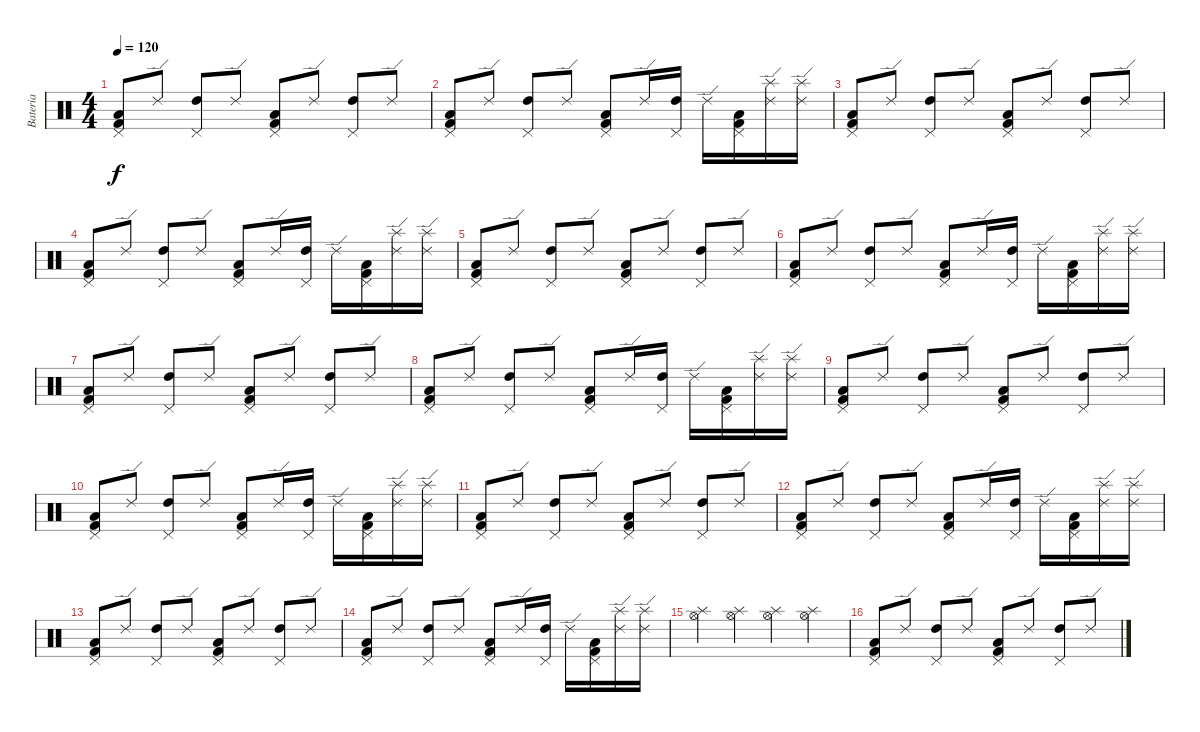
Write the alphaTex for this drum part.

\track ("Bateria" "Bateria") {instrument percussion}
\staff {score}
\articulation defaults
\ts (4 4)
\tempo 120
\clef neutral
\ks c
("Low Tom (hit)" "Kick (hit) 2" "Pedal Hi-Hat (hit)").8{dy f} "Ride (edge) 2".8 ("High Tom (hit)" "Pedal Hi-Hat (hit)").8 "Ride (edge) 2".8 ("Low Tom (hit)" "Kick (hit) 2" "Pedal Hi-Hat (hit)").8 "Ride (edge) 2".8 ("High Tom (hit)" "Pedal Hi-Hat (hit)").8 "Ride (edge) 2".8 |
("Low Tom (hit)" "Kick (hit) 2" "Pedal Hi-Hat (hit)").8 "Ride (edge) 2".8 ("High Tom (hit)" "Pedal Hi-Hat (hit)").8 "Ride (edge) 2".8 ("Low Tom (hit)" "Kick (hit) 2" "Pedal Hi-Hat (hit)").8 "Ride (edge) 2".16 ("High Tom (hit)" "Pedal Hi-Hat (hit)").16 "Ride (edge) 2".16 ("Low Tom (hit)" "Kick (hit) 2" "Pedal Hi-Hat (hit)").16 ("Ride (edge) 2" "Splash (hit)").16 ("Ride (edge) 2" "Splash (hit)").16 |
("Low Tom (hit)" "Kick (hit) 2" "Pedal Hi-Hat (hit)").8 "Ride (edge) 2".8 ("High Tom (hit)" "Pedal Hi-Hat (hit)").8 "Ride (edge) 2".8 ("Low Tom (hit)" "Kick (hit) 2" "Pedal Hi-Hat (hit)").8 "Ride (edge) 2".8 ("High Tom (hit)" "Pedal Hi-Hat (hit)").8 "Ride (edge) 2".8 |
("Low Tom (hit)" "Kick (hit) 2" "Pedal Hi-Hat (hit)").8 "Ride (edge) 2".8 ("High Tom (hit)" "Pedal Hi-Hat (hit)").8 "Ride (edge) 2".8 ("Low Tom (hit)" "Kick (hit) 2" "Pedal Hi-Hat (hit)").8 "Ride (edge) 2".16 ("High Tom (hit)" "Pedal Hi-Hat (hit)").16 "Ride (edge) 2".16 ("Low Tom (hit)" "Kick (hit) 2" "Pedal Hi-Hat (hit)").16 ("Ride (edge) 2" "Splash (hit)").16 ("Ride (edge) 2" "Splash (hit)").16 |
("Low Tom (hit)" "Kick (hit) 2" "Pedal Hi-Hat (hit)").8 "Ride (edge) 2".8 ("High Tom (hit)" "Pedal Hi-Hat (hit)").8 "Ride (edge) 2".8 ("Low Tom (hit)" "Kick (hit) 2" "Pedal Hi-Hat (hit)").8 "Ride (edge) 2".8 ("High Tom (hit)" "Pedal Hi-Hat (hit)").8 "Ride (edge) 2".8 |
("Low Tom (hit)" "Kick (hit) 2" "Pedal Hi-Hat (hit)").8 "Ride (edge) 2".8 ("High Tom (hit)" "Pedal Hi-Hat (hit)").8 "Ride (edge) 2".8 ("Low Tom (hit)" "Kick (hit) 2" "Pedal Hi-Hat (hit)").8 "Ride (edge) 2".16 ("High Tom (hit)" "Pedal Hi-Hat (hit)").16 "Ride (edge) 2".16 ("Low Tom (hit)" "Kick (hit) 2" "Pedal Hi-Hat (hit)").16 ("Ride (edge) 2" "Splash (hit)").16 ("Ride (edge) 2" "Splash (hit)").16 |
("Low Tom (hit)" "Kick (hit) 2" "Pedal Hi-Hat (hit)").8 "Ride (edge) 2".8 ("High Tom (hit)" "Pedal Hi-Hat (hit)").8 "Ride (edge) 2".8 ("Low Tom (hit)" "Kick (hit) 2" "Pedal Hi-Hat (hit)").8 "Ride (edge) 2".8 ("High Tom (hit)" "Pedal Hi-Hat (hit)").8 "Ride (edge) 2".8 |
("Low Tom (hit)" "Kick (hit) 2" "Pedal Hi-Hat (hit)").8 "Ride (edge) 2".8 ("High Tom (hit)" "Pedal Hi-Hat (hit)").8 "Ride (edge) 2".8 ("Low Tom (hit)" "Kick (hit) 2" "Pedal Hi-Hat (hit)").8 "Ride (edge) 2".16 ("High Tom (hit)" "Pedal Hi-Hat (hit)").16 "Ride (edge) 2".16 ("Low Tom (hit)" "Kick (hit) 2" "Pedal Hi-Hat (hit)").16 ("Ride (edge) 2" "Splash (hit)").16 ("Ride (edge) 2" "Splash (hit)").16 |
("Low Tom (hit)" "Kick (hit) 2" "Pedal Hi-Hat (hit)").8 "Ride (edge) 2".8 ("High Tom (hit)" "Pedal Hi-Hat (hit)").8 "Ride (edge) 2".8 ("Low Tom (hit)" "Kick (hit) 2" "Pedal Hi-Hat (hit)").8 "Ride (edge) 2".8 ("High Tom (hit)" "Pedal Hi-Hat (hit)").8 "Ride (edge) 2".8 |
("Low Tom (hit)" "Kick (hit) 2" "Pedal Hi-Hat (hit)").8 "Ride (edge) 2".8 ("High Tom (hit)" "Pedal Hi-Hat (hit)").8 "Ride (edge) 2".8 ("Low Tom (hit)" "Kick (hit) 2" "Pedal Hi-Hat (hit)").8 "Ride (edge) 2".16 ("High Tom (hit)" "Pedal Hi-Hat (hit)").16 "Ride (edge) 2".16 ("Low Tom (hit)" "Kick (hit) 2" "Pedal Hi-Hat (hit)").16 ("Ride (edge) 2" "Splash (hit)").16 ("Ride (edge) 2" "Splash (hit)").16 |
("Low Tom (hit)" "Kick (hit) 2" "Pedal Hi-Hat (hit)").8 "Ride (edge) 2".8 ("High Tom (hit)" "Pedal Hi-Hat (hit)").8 "Ride (edge) 2".8 ("Low Tom (hit)" "Kick (hit) 2" "Pedal Hi-Hat (hit)").8 "Ride (edge) 2".8 ("High Tom (hit)" "Pedal Hi-Hat (hit)").8 "Ride (edge) 2".8 |
("Low Tom (hit)" "Kick (hit) 2" "Pedal Hi-Hat (hit)").8 "Ride (edge) 2".8 ("High Tom (hit)" "Pedal Hi-Hat (hit)").8 "Ride (edge) 2".8 ("Low Tom (hit)" "Kick (hit) 2" "Pedal Hi-Hat (hit)").8 "Ride (edge) 2".16 ("High Tom (hit)" "Pedal Hi-Hat (hit)").16 "Ride (edge) 2".16 ("Low Tom (hit)" "Kick (hit) 2" "Pedal Hi-Hat (hit)").16 ("Ride (edge) 2" "Splash (hit)").16 ("Ride (edge) 2" "Splash (hit)").16 |
("Low Tom (hit)" "Kick (hit) 2" "Pedal Hi-Hat (hit)").8 "Ride (edge) 2".8 ("High Tom (hit)" "Pedal Hi-Hat (hit)").8 "Ride (edge) 2".8 ("Low Tom (hit)" "Kick (hit) 2" "Pedal Hi-Hat (hit)").8 "Ride (edge) 2".8 ("High Tom (hit)" "Pedal Hi-Hat (hit)").8 "Ride (edge) 2".8 |
("Low Tom (hit)" "Kick (hit) 2" "Pedal Hi-Hat (hit)").8 "Ride (edge) 2".8 ("High Tom (hit)" "Pedal Hi-Hat (hit)").8 "Ride (edge) 2".8 ("Low Tom (hit)" "Kick (hit) 2" "Pedal Hi-Hat (hit)").8 "Ride (edge) 2".16 ("High Tom (hit)" "Pedal Hi-Hat (hit)").16 "Ride (edge) 2".16 ("Low Tom (hit)" "Kick (hit) 2" "Pedal Hi-Hat (hit)").16 ("Ride (edge) 2" "Splash (hit)").16 ("Ride (edge) 2" "Splash (hit)").16 |
("Splash (hit)" "Hi-Hat (open)").4 ("Splash (hit)" "Hi-Hat (open)").4 ("Splash (hit)" "Hi-Hat (open)").4 ("Splash (hit)" "Hi-Hat (open)").4 |
("Low Tom (hit)" "Kick (hit) 2" "Pedal Hi-Hat (hit)").8 "Ride (edge) 2".8 ("High Tom (hit)" "Pedal Hi-Hat (hit)").8 "Ride (edge) 2".8 ("Low Tom (hit)" "Kick (hit) 2" "Pedal Hi-Hat (hit)").8 "Ride (edge) 2".8 ("High Tom (hit)" "Pedal Hi-Hat (hit)").8 "Ride (edge) 2".8
